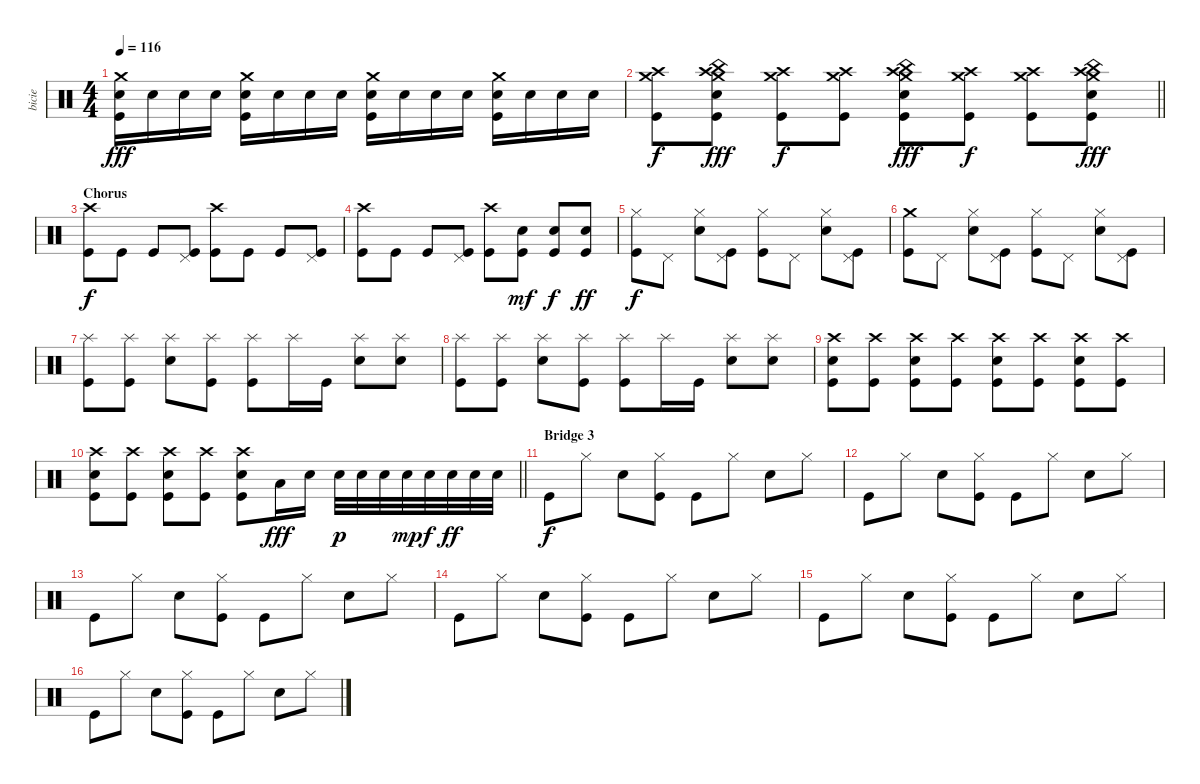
\track ("bicie" "bicie") {instrument percussion}
\staff {score}
\articulation defaults
\ts (4 4)
\tempo 116
\clef neutral
\ks c
("Crash medium (hit)" "Electric Snare (hit)" "Kick (hit)").16{dy fff} "Electric Snare (hit)".16 "Electric Snare (hit)".16 "Electric Snare (hit)".16 ("Crash medium (hit)" "Electric Snare (hit)" "Kick (hit)").16 "Electric Snare (hit)".16 "Electric Snare (hit)".16 "Electric Snare (hit)".16 ("Crash medium (hit)" "Electric Snare (hit)" "Kick (hit)").16 "Electric Snare (hit)".16 "Electric Snare (hit)".16 "Electric Snare (hit)".16 ("Crash medium (hit)" "Electric Snare (hit)" "Kick (hit)").16 "Electric Snare (hit)".16 "Electric Snare (hit)".16 "Electric Snare (hit)".16 |
\barLineRight lightlight
("Crash medium (hit)" "Crash high (hit)" "Kick (hit)").8{dy f} ("China (hit)" "Crash high (hit)" "Crash medium (hit)" "Electric Snare (hit)" "Kick (hit)").8{dy fff} ("Crash medium (hit)" "Crash high (hit)" "Kick (hit)").8{dy f} ("Crash medium (hit)" "Crash high (hit)" "Kick (hit)").8 ("China (hit)" "Crash high (hit)" "Crash medium (hit)" "Electric Snare (hit)" "Kick (hit)").8{dy fff} ("Crash medium (hit)" "Crash high (hit)" "Kick (hit)").8{dy f} ("Crash medium (hit)" "Crash high (hit)" "Kick (hit)").8 ("China (hit)" "Crash high (hit)" "Crash medium (hit)" "Electric Snare (hit)" "Kick (hit)").8{dy fff} |
\section ("" "Chorus")
("Crash high (hit)" "Kick (hit)").8{dy f} "Kick (hit)".8 "Kick (hit)".8 ("Pedal Hi-Hat (hit)" "Kick (hit)").8 ("Crash high (hit)" "Kick (hit)").8 "Kick (hit)".8 "Kick (hit)".8 ("Pedal Hi-Hat (hit)" "Kick (hit)").8 |
("Crash high (hit)" "Kick (hit)").8 "Kick (hit)".8 "Kick (hit)".8 ("Pedal Hi-Hat (hit)" "Kick (hit)").8 ("Crash high (hit)" "Kick (hit)").8 ("Electric Snare (hit)" "Kick (hit)").8{dy mf} ("Electric Snare (hit)" "Kick (hit)").8{dy f} ("Electric Snare (hit)" "Kick (hit)").8{dy ff} |
("Hi-Hat (closed)" "Kick (hit)").8{dy f} "Pedal Hi-Hat (hit)".8 ("Hi-Hat (closed)" "Electric Snare (hit)").8 ("Pedal Hi-Hat (hit)" "Kick (hit)").8 ("Hi-Hat (closed)" "Kick (hit)").8 "Pedal Hi-Hat (hit)".8 ("Hi-Hat (closed)" "Electric Snare (hit)").8 ("Pedal Hi-Hat (hit)" "Kick (hit)").8 |
("Crash medium (hit)" "Kick (hit)").8 "Pedal Hi-Hat (hit)".8 ("Hi-Hat (closed)" "Electric Snare (hit)").8 ("Pedal Hi-Hat (hit)" "Kick (hit)").8 ("Hi-Hat (closed)" "Kick (hit)").8 "Pedal Hi-Hat (hit)".8 ("Hi-Hat (closed)" "Electric Snare (hit)").8 ("Pedal Hi-Hat (hit)" "Kick (hit)").8 |
("Splash (hit)" "Kick (hit)").8 ("Splash (hit)" "Kick (hit)").8 ("Splash (hit)" "Electric Snare (hit)").8 ("Splash (hit)" "Kick (hit)").8 ("Splash (hit)" "Kick (hit)").8 "Splash (hit)".16 "Kick (hit)".16 ("Splash (hit)" "Electric Snare (hit)").8 ("Splash (hit)" "Electric Snare (hit)").8 |
("Splash (hit)" "Kick (hit)").8 ("Splash (hit)" "Kick (hit)").8 ("Splash (hit)" "Electric Snare (hit)").8 ("Splash (hit)" "Kick (hit)").8 ("Splash (hit)" "Kick (hit)").8 "Splash (hit)".16 "Kick (hit)".16 ("Splash (hit)" "Electric Snare (hit)").8 ("Splash (hit)" "Electric Snare (hit)").8 |
("Crash high (hit)" "Electric Snare (hit)" "Kick (hit)").8 ("Crash high (hit)" "Kick (hit)").8 ("Crash high (hit)" "Electric Snare (hit)" "Kick (hit)").8 ("Crash high (hit)" "Kick (hit)").8 ("Crash high (hit)" "Electric Snare (hit)" "Kick (hit)").8 ("Crash high (hit)" "Kick (hit)").8 ("Crash high (hit)" "Electric Snare (hit)" "Kick (hit)").8 ("Crash high (hit)" "Kick (hit)").8 |
\barLineRight lightlight
("Crash high (hit)" "Electric Snare (hit)" "Kick (hit)").8 ("Crash high (hit)" "Kick (hit)").8 ("Crash high (hit)" "Electric Snare (hit)" "Kick (hit)").8 ("Crash high (hit)" "Kick (hit)").8 ("Crash high (hit)" "Electric Snare (hit)" "Kick (hit)").8 "Low Tom (hit)".16{dy fff} "Electric Snare (hit)".16 "Electric Snare (hit)".32{dy p} "Electric Snare (hit)".32 "Electric Snare (hit)".32 "Electric Snare (hit)".32{dy mp} "Electric Snare (hit)".32{dy f} "Electric Snare (hit)".32{dy ff} "Electric Snare (hit)".32 "Electric Snare (hit)".32 |
\section ("" "Bridge 3")
"Kick (hit)".8{dy f} "Hi-Hat (closed)".8 "Electric Snare (hit)".8 ("Hi-Hat (closed)" "Kick (hit)").8 "Kick (hit)".8 "Hi-Hat (closed)".8 "Electric Snare (hit)".8 "Hi-Hat (closed)".8 |
"Kick (hit)".8 "Hi-Hat (closed)".8 "Electric Snare (hit)".8 ("Hi-Hat (closed)" "Kick (hit)").8 "Kick (hit)".8 "Hi-Hat (closed)".8 "Electric Snare (hit)".8 "Hi-Hat (closed)".8 |
"Kick (hit)".8 "Hi-Hat (closed)".8 "Electric Snare (hit)".8 ("Hi-Hat (closed)" "Kick (hit)").8 "Kick (hit)".8 "Hi-Hat (closed)".8 "Electric Snare (hit)".8 "Hi-Hat (closed)".8 |
"Kick (hit)".8 "Hi-Hat (closed)".8 "Electric Snare (hit)".8 ("Hi-Hat (closed)" "Kick (hit)").8 "Kick (hit)".8 "Hi-Hat (closed)".8 "Electric Snare (hit)".8 "Hi-Hat (closed)".8 |
"Kick (hit)".8 "Hi-Hat (closed)".8 "Electric Snare (hit)".8 ("Hi-Hat (closed)" "Kick (hit)").8 "Kick (hit)".8 "Hi-Hat (closed)".8 "Electric Snare (hit)".8 "Hi-Hat (closed)".8 |
"Kick (hit)".8 "Hi-Hat (closed)".8 "Electric Snare (hit)".8 ("Hi-Hat (closed)" "Kick (hit)").8 "Kick (hit)".8 "Hi-Hat (closed)".8 "Electric Snare (hit)".8 "Hi-Hat (closed)".8
